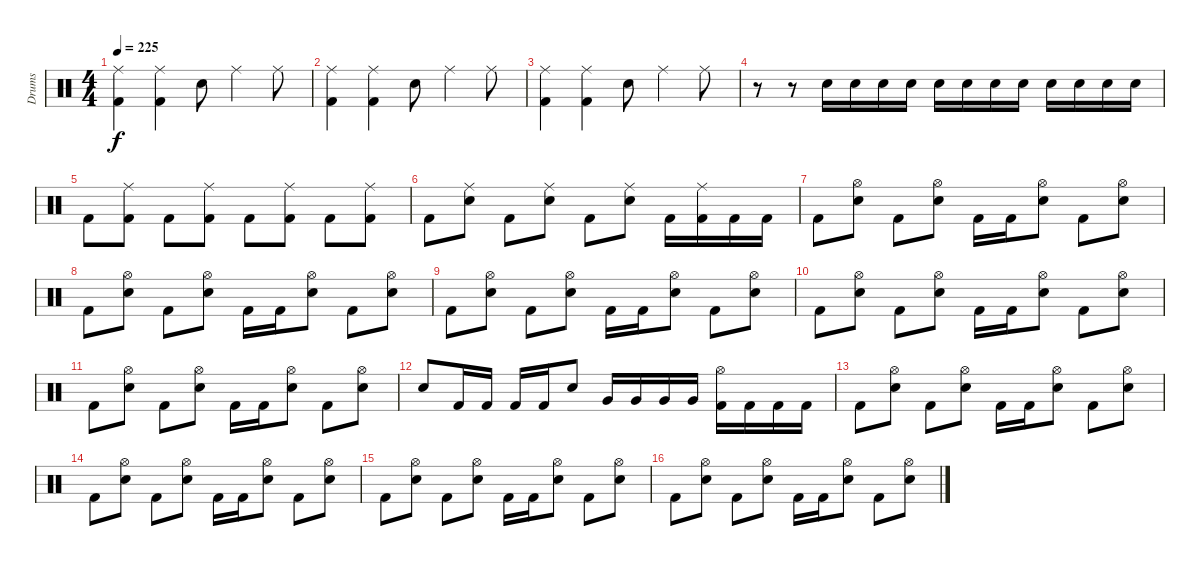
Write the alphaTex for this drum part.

\track ("Drums" "Drums") {instrument percussion}
\staff {score}
\articulation defaults
\ts (4 4)
\tempo 225
\clef neutral
\ks c
("Ride (middle)" "Kick (hit) 2").4{dy f} ("Ride (middle)" "Kick (hit) 2").4 "Electric Snare (hit)".8 "Ride (middle)".4 "Ride (middle)".8 |
("Ride (middle)" "Kick (hit) 2").4 ("Ride (middle)" "Kick (hit) 2").4 "Electric Snare (hit)".8 "Ride (middle)".4 "Ride (middle)".8 |
("Ride (middle)" "Kick (hit) 2").4 ("Ride (middle)" "Kick (hit) 2").4 "Electric Snare (hit)".8 "Ride (middle)".4 "Ride (middle)".8 |
r.8 r.8 "Electric Snare (hit)".16 "Electric Snare (hit)".16 "Electric Snare (hit)".16 "Electric Snare (hit)".16 "Electric Snare (hit)".16 "Electric Snare (hit)".16 "Electric Snare (hit)".16 "Electric Snare (hit)".16 "Electric Snare (hit)".16 "Electric Snare (hit)".16 "Electric Snare (hit)".16 "Electric Snare (hit)".16 |
"Kick (hit) 2".8 ("Ride (middle)" "Kick (hit) 2").8 "Kick (hit) 2".8 ("Ride (middle)" "Kick (hit) 2").8 "Kick (hit) 2".8 ("Ride (middle)" "Kick (hit) 2").8 "Kick (hit) 2".8 ("Ride (middle)" "Kick (hit) 2").8 |
"Kick (hit) 2".8 ("Ride (middle)" "Electric Snare (hit)").8 "Kick (hit) 2".8 ("Ride (middle)" "Electric Snare (hit)").8 "Kick (hit) 2".8 ("Ride (middle)" "Electric Snare (hit)").8 "Kick (hit) 2".16 ("Ride (middle)" "Kick (hit) 2").16 "Kick (hit) 2".16 "Kick (hit) 2".16 |
"Kick (hit) 2".8 ("Hi-Hat (open)" "Electric Snare (hit)").8 "Kick (hit) 2".8 ("Hi-Hat (open)" "Electric Snare (hit)").8 "Kick (hit) 2".16 "Kick (hit) 2".16 ("Hi-Hat (open)" "Electric Snare (hit)").8 "Kick (hit) 2".8 ("Hi-Hat (open)" "Electric Snare (hit)").8 |
"Kick (hit) 2".8 ("Hi-Hat (open)" "Electric Snare (hit)").8 "Kick (hit) 2".8 ("Hi-Hat (open)" "Electric Snare (hit)").8 "Kick (hit) 2".16 "Kick (hit) 2".16 ("Hi-Hat (open)" "Electric Snare (hit)").8 "Kick (hit) 2".8 ("Hi-Hat (open)" "Electric Snare (hit)").8 |
"Kick (hit) 2".8 ("Hi-Hat (open)" "Electric Snare (hit)").8 "Kick (hit) 2".8 ("Hi-Hat (open)" "Electric Snare (hit)").8 "Kick (hit) 2".16 "Kick (hit) 2".16 ("Hi-Hat (open)" "Electric Snare (hit)").8 "Kick (hit) 2".8 ("Hi-Hat (open)" "Electric Snare (hit)").8 |
"Kick (hit) 2".8 ("Hi-Hat (open)" "Electric Snare (hit)").8 "Kick (hit) 2".8 ("Hi-Hat (open)" "Electric Snare (hit)").8 "Kick (hit) 2".16 "Kick (hit) 2".16 ("Hi-Hat (open)" "Electric Snare (hit)").8 "Kick (hit) 2".8 ("Hi-Hat (open)" "Electric Snare (hit)").8 |
"Kick (hit) 2".8 ("Hi-Hat (open)" "Electric Snare (hit)").8 "Kick (hit) 2".8 ("Hi-Hat (open)" "Electric Snare (hit)").8 "Kick (hit) 2".16 "Kick (hit) 2".16 ("Hi-Hat (open)" "Electric Snare (hit)").8 "Kick (hit) 2".8 ("Hi-Hat (open)" "Electric Snare (hit)").8 |
"Electric Snare (hit)".8 "Kick (hit) 2".16 "Kick (hit) 2".16 "Kick (hit) 2".16 "Kick (hit) 2".16 "Electric Snare (hit)".8 "Very Low Tom (hit)".16 "Very Low Tom (hit)".16 "Very Low Tom (hit)".16 "Very Low Tom (hit)".16 ("Hi-Hat (open)" "Kick (hit) 2").16 "Kick (hit) 2".16 "Kick (hit) 2".16 "Kick (hit) 2".16 |
"Kick (hit) 2".8 ("Hi-Hat (open)" "Electric Snare (hit)").8 "Kick (hit) 2".8 ("Hi-Hat (open)" "Electric Snare (hit)").8 "Kick (hit) 2".16 "Kick (hit) 2".16 ("Hi-Hat (open)" "Electric Snare (hit)").8 "Kick (hit) 2".8 ("Hi-Hat (open)" "Electric Snare (hit)").8 |
"Kick (hit) 2".8 ("Hi-Hat (open)" "Electric Snare (hit)").8 "Kick (hit) 2".8 ("Hi-Hat (open)" "Electric Snare (hit)").8 "Kick (hit) 2".16 "Kick (hit) 2".16 ("Hi-Hat (open)" "Electric Snare (hit)").8 "Kick (hit) 2".8 ("Hi-Hat (open)" "Electric Snare (hit)").8 |
"Kick (hit) 2".8 ("Hi-Hat (open)" "Electric Snare (hit)").8 "Kick (hit) 2".8 ("Hi-Hat (open)" "Electric Snare (hit)").8 "Kick (hit) 2".16 "Kick (hit) 2".16 ("Hi-Hat (open)" "Electric Snare (hit)").8 "Kick (hit) 2".8 ("Hi-Hat (open)" "Electric Snare (hit)").8 |
"Kick (hit) 2".8 ("Hi-Hat (open)" "Electric Snare (hit)").8 "Kick (hit) 2".8 ("Hi-Hat (open)" "Electric Snare (hit)").8 "Kick (hit) 2".16 "Kick (hit) 2".16 ("Hi-Hat (open)" "Electric Snare (hit)").8 "Kick (hit) 2".8 ("Hi-Hat (open)" "Electric Snare (hit)").8
